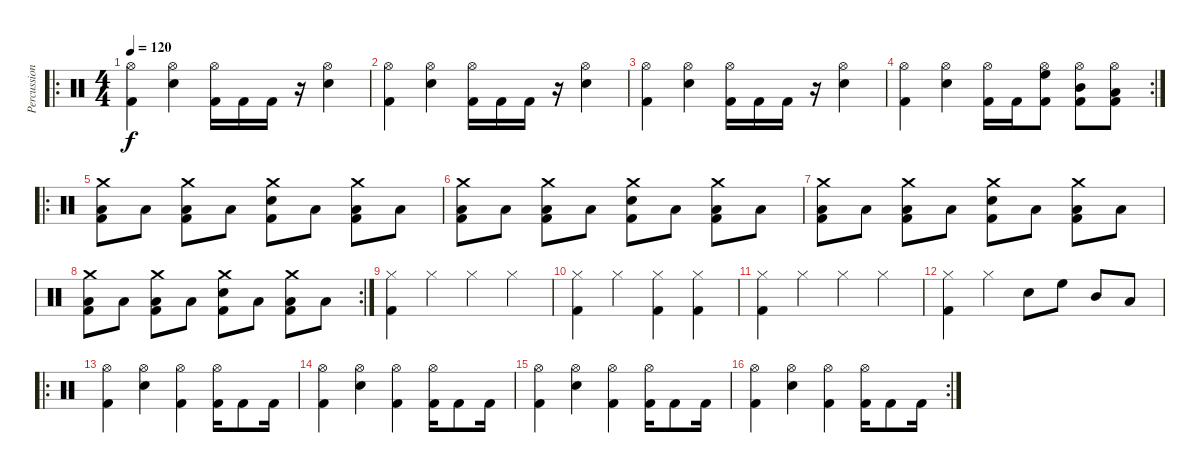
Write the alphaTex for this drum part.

\track ("Percussion" "Percussion") {instrument percussion}
\staff {score}
\articulation defaults
\ro
\ts (4 4)
\tempo 120
\clef neutral
\ks c
("Hi-Hat (open)" "Kick (hit) 2").4{dy f} ("Hi-Hat (open)" "Snare (hit) 2").4 ("Hi-Hat (open)" "Kick (hit) 2").16 "Kick (hit) 2".16 "Kick (hit) 2".16 r.16 ("Hi-Hat (open)" "Snare (hit) 2").4 |
("Hi-Hat (open)" "Kick (hit) 2").4 ("Hi-Hat (open)" "Snare (hit) 2").4 ("Hi-Hat (open)" "Kick (hit) 2").16 "Kick (hit) 2".16 "Kick (hit) 2".16 r.16 ("Hi-Hat (open)" "Snare (hit) 2").4 |
("Hi-Hat (open)" "Kick (hit) 2").4 ("Hi-Hat (open)" "Snare (hit) 2").4 ("Hi-Hat (open)" "Kick (hit) 2").16 "Kick (hit) 2".16 "Kick (hit) 2".16 r.16 ("Hi-Hat (open)" "Snare (hit) 2").4 |
\rc 2
("Hi-Hat (open)" "Kick (hit) 2").4 ("Hi-Hat (open)" "Snare (hit) 2").4 ("Hi-Hat (open)" "Kick (hit) 2").16 "Kick (hit) 2".16 ("Hi-Hat (open)" "Kick (hit) 2" "High Floor Tom (hit)").8 ("Hi-Hat (open)" "Kick (hit) 2" "Mid Tom (hit)").8 ("Hi-Hat (open)" "Kick (hit) 2" "Low Tom (hit)").8 |
\ro
("Crash medium (hit)" "Kick (hit) 2" "Low Tom (hit)").8 "Low Tom (hit)".8 ("Crash medium (hit)" "Kick (hit) 2" "Low Tom (hit)").8 "Low Tom (hit)".8 ("Crash medium (hit)" "Kick (hit) 2" "Snare (hit) 2").8 "Low Tom (hit)".8 ("Crash medium (hit)" "Kick (hit) 2" "Low Tom (hit)").8 "Low Tom (hit)".8 |
("Crash medium (hit)" "Kick (hit) 2" "Low Tom (hit)").8 "Low Tom (hit)".8 ("Crash medium (hit)" "Kick (hit) 2" "Low Tom (hit)").8 "Low Tom (hit)".8 ("Crash medium (hit)" "Kick (hit) 2" "Snare (hit) 2").8 "Low Tom (hit)".8 ("Crash medium (hit)" "Kick (hit) 2" "Low Tom (hit)").8 "Low Tom (hit)".8 |
("Crash medium (hit)" "Kick (hit) 2" "Low Tom (hit)").8 "Low Tom (hit)".8 ("Crash medium (hit)" "Kick (hit) 2" "Low Tom (hit)").8 "Low Tom (hit)".8 ("Crash medium (hit)" "Kick (hit) 2" "Snare (hit) 2").8 "Low Tom (hit)".8 ("Crash medium (hit)" "Kick (hit) 2" "Low Tom (hit)").8 "Low Tom (hit)".8 |
\rc 2
("Crash medium (hit)" "Kick (hit) 2" "Low Tom (hit)").8 "Low Tom (hit)".8 ("Crash medium (hit)" "Kick (hit) 2" "Low Tom (hit)").8 "Low Tom (hit)".8 ("Crash medium (hit)" "Kick (hit) 2" "Snare (hit) 2").8 "Low Tom (hit)".8 ("Crash medium (hit)" "Kick (hit) 2" "Low Tom (hit)").8 "Low Tom (hit)".8 |
("Hi-Hat (closed)" "Kick (hit) 2").4 "Hi-Hat (closed)".4 "Hi-Hat (closed)".4 "Hi-Hat (closed)".4 |
("Hi-Hat (closed)" "Kick (hit) 2").4 "Hi-Hat (closed)".4 ("Hi-Hat (closed)" "Kick (hit) 2").4 ("Hi-Hat (closed)" "Kick (hit) 2").4 |
("Hi-Hat (closed)" "Kick (hit) 2").4 "Hi-Hat (closed)".4 "Hi-Hat (closed)".4 "Hi-Hat (closed)".4 |
("Hi-Hat (closed)" "Kick (hit) 2").4 "Hi-Hat (closed)".4 "Snare (hit) 2".8 "High Floor Tom (hit)".8 "Mid Tom (hit)".8 "Low Tom (hit)".8 |
\ro
("Hi-Hat (open)" "Kick (hit) 2").4 ("Hi-Hat (open)" "Snare (hit) 2").4 ("Hi-Hat (open)" "Kick (hit) 2").4 ("Hi-Hat (open)" "Kick (hit) 2").16 "Kick (hit) 2".8 "Kick (hit) 2".16 |
("Hi-Hat (open)" "Kick (hit) 2").4 ("Hi-Hat (open)" "Snare (hit) 2").4 ("Hi-Hat (open)" "Kick (hit) 2").4 ("Hi-Hat (open)" "Kick (hit) 2").16 "Kick (hit) 2".8 "Kick (hit) 2".16 |
("Hi-Hat (open)" "Kick (hit) 2").4 ("Hi-Hat (open)" "Snare (hit) 2").4 ("Hi-Hat (open)" "Kick (hit) 2").4 ("Hi-Hat (open)" "Kick (hit) 2").16 "Kick (hit) 2".8 "Kick (hit) 2".16 |
\rc 2
("Hi-Hat (open)" "Kick (hit) 2").4 ("Hi-Hat (open)" "Snare (hit) 2").4 ("Hi-Hat (open)" "Kick (hit) 2").4 ("Hi-Hat (open)" "Kick (hit) 2").16 "Kick (hit) 2".8 "Kick (hit) 2".16
